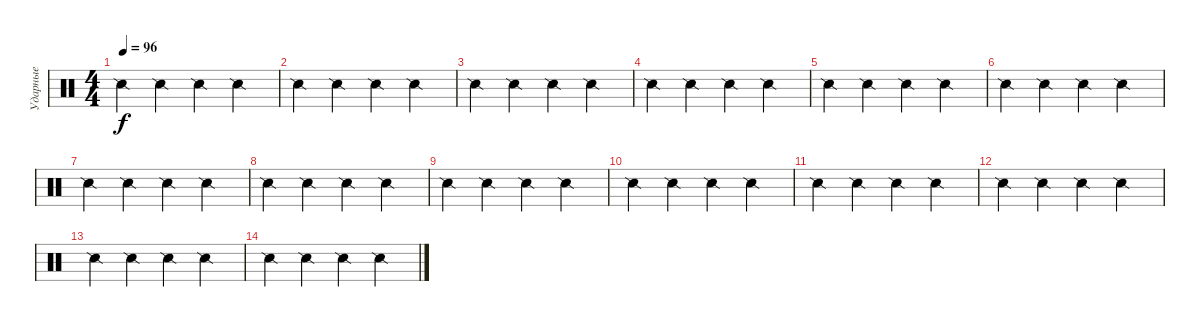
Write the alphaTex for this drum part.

\track ("Ударные" "Ударные") {instrument percussion}
\staff {score}
\articulation defaults
\ts (4 4)
\tempo 96
\clef neutral
\ks c "Snare (side stick) 2".4{dy f} "Snare (side stick) 2".4 "Snare (side stick) 2".4 "Snare (side stick) 2".4
|
"Snare (side stick) 2".4 "Snare (side stick) 2".4 "Snare (side stick) 2".4 "Snare (side stick) 2".4 |
"Snare (side stick) 2".4 "Snare (side stick) 2".4 "Snare (side stick) 2".4 "Snare (side stick) 2".4 |
"Snare (side stick) 2".4 "Snare (side stick) 2".4 "Snare (side stick) 2".4 "Snare (side stick) 2".4 |
"Snare (side stick) 2".4 "Snare (side stick) 2".4 "Snare (side stick) 2".4 "Snare (side stick) 2".4 |
"Snare (side stick) 2".4 "Snare (side stick) 2".4 "Snare (side stick) 2".4 "Snare (side stick) 2".4 |
"Snare (side stick) 2".4 "Snare (side stick) 2".4 "Snare (side stick) 2".4 "Snare (side stick) 2".4 |
"Snare (side stick) 2".4 "Snare (side stick) 2".4 "Snare (side stick) 2".4 "Snare (side stick) 2".4 |
"Snare (side stick) 2".4 "Snare (side stick) 2".4 "Snare (side stick) 2".4 "Snare (side stick) 2".4 |
"Snare (side stick) 2".4 "Snare (side stick) 2".4 "Snare (side stick) 2".4 "Snare (side stick) 2".4 |
"Snare (side stick) 2".4 "Snare (side stick) 2".4 "Snare (side stick) 2".4 "Snare (side stick) 2".4 |
"Snare (side stick) 2".4 "Snare (side stick) 2".4 "Snare (side stick) 2".4 "Snare (side stick) 2".4 |
"Snare (side stick) 2".4 "Snare (side stick) 2".4 "Snare (side stick) 2".4 "Snare (side stick) 2".4 |
"Snare (side stick) 2".4 "Snare (side stick) 2".4 "Snare (side stick) 2".4 "Snare (side stick) 2".4
